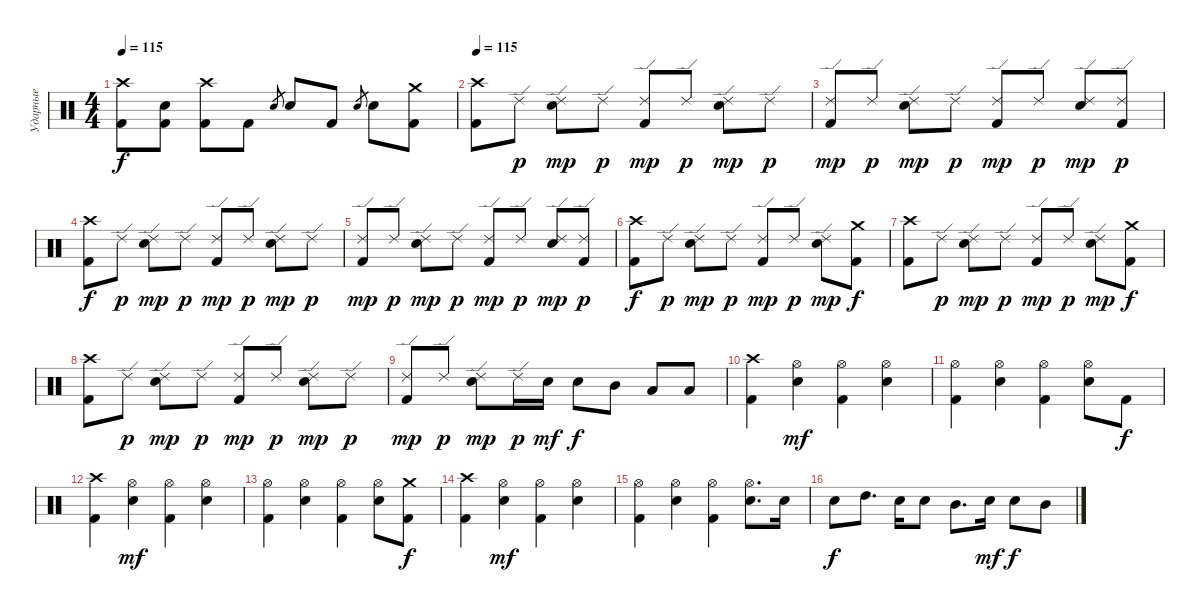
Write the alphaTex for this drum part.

\track ("Ударные" "Ударные") {instrument percussion}
\staff {score}
\articulation defaults
\ts (4 4)
\tempo 115
\clef neutral
\ks c
("Crash high (hit)" "Kick (hit) 2").8{dy f} ("Kick (hit) 2" "Electric Snare (hit)").8 ("Kick (hit) 2" "Crash high (hit)").8 "Kick (hit) 2".8 "Electric Snare (hit)".8{gr} "Electric Snare (hit)".8 "Kick (hit) 2".8 "Electric Snare (hit)".8{gr} "Electric Snare (hit)".8 ("Crash medium (hit)" "Kick (hit) 2").8 |
\tempo 115
("Crash high (hit)" "Kick (hit) 2").8 "Ride (edge) 2".8{dy p} ("Ride (edge) 2" "Electric Snare (hit)").8{dy mp} "Ride (edge) 2".8{dy p} ("Ride (edge) 2" "Kick (hit) 2").8{dy mp} "Ride (edge) 2".8{dy p} ("Ride (edge) 2" "Electric Snare (hit)").8{dy mp} "Ride (edge) 2".8{dy p} |
("Ride (edge) 2" "Kick (hit) 2").8{dy mp} "Ride (edge) 2".8{dy p} ("Ride (edge) 2" "Electric Snare (hit)").8{dy mp} "Ride (edge) 2".8{dy p} ("Ride (edge) 2" "Kick (hit) 2").8{dy mp} "Ride (edge) 2".8{dy p} ("Ride (edge) 2" "Electric Snare (hit)").8{dy mp} ("Ride (edge) 2" "Kick (hit) 2").8{dy p} |
("Crash high (hit)" "Kick (hit) 2").8{dy f} "Ride (edge) 2".8{dy p} ("Ride (edge) 2" "Electric Snare (hit)").8{dy mp} "Ride (edge) 2".8{dy p} ("Ride (edge) 2" "Kick (hit) 2").8{dy mp} "Ride (edge) 2".8{dy p} ("Ride (edge) 2" "Electric Snare (hit)").8{dy mp} "Ride (edge) 2".8{dy p} |
("Ride (edge) 2" "Kick (hit) 2").8{dy mp} "Ride (edge) 2".8{dy p} ("Ride (edge) 2" "Electric Snare (hit)").8{dy mp} "Ride (edge) 2".8{dy p} ("Ride (edge) 2" "Kick (hit) 2").8{dy mp} "Ride (edge) 2".8{dy p} ("Ride (edge) 2" "Electric Snare (hit)").8{dy mp} ("Ride (edge) 2" "Kick (hit) 2").8{dy p} |
("Crash high (hit)" "Kick (hit) 2").8{dy f} "Ride (edge) 2".8{dy p} ("Ride (edge) 2" "Electric Snare (hit)").8{dy mp} "Ride (edge) 2".8{dy p} ("Ride (edge) 2" "Kick (hit) 2").8{dy mp} "Ride (edge) 2".8{dy p} ("Ride (edge) 2" "Electric Snare (hit)").8{dy mp} ("Crash medium (hit)" "Kick (hit) 2").8{dy f} |
("Crash high (hit)" "Kick (hit) 2").8 "Ride (edge) 2".8{dy p} ("Ride (edge) 2" "Electric Snare (hit)").8{dy mp} "Ride (edge) 2".8{dy p} ("Ride (edge) 2" "Kick (hit) 2").8{dy mp} "Ride (edge) 2".8{dy p} ("Ride (edge) 2" "Electric Snare (hit)").8{dy mp} ("Crash medium (hit)" "Kick (hit) 2").8{dy f} |
("Crash high (hit)" "Kick (hit) 2").8 "Ride (edge) 2".8{dy p} ("Ride (edge) 2" "Electric Snare (hit)").8{dy mp} "Ride (edge) 2".8{dy p} ("Ride (edge) 2" "Kick (hit) 2").8{dy mp} "Ride (edge) 2".8{dy p} ("Ride (edge) 2" "Electric Snare (hit)").8{dy mp} "Ride (edge) 2".8{dy p} |
("Ride (edge) 2" "Kick (hit) 2").8{dy mp} "Ride (edge) 2".8{dy p} ("Ride (edge) 2" "Electric Snare (hit)").8{dy mp} "Ride (edge) 2".16{dy p} "Electric Snare (hit)".16{dy mf} "Electric Snare (hit)".8{dy f} "Mid Tom (hit)".8 "Low Tom (hit)".8 "Low Tom (hit)".8 |
("Crash high (hit)" "Kick (hit) 2").4 ("Hi-Hat (open)" "Electric Snare (hit)").4{dy mf} ("Hi-Hat (open)" "Kick (hit) 2").4 ("Hi-Hat (open)" "Electric Snare (hit)").4 |
("Hi-Hat (open)" "Kick (hit) 2").4 ("Hi-Hat (open)" "Electric Snare (hit)").4 ("Hi-Hat (open)" "Kick (hit) 2").4 ("Hi-Hat (open)" "Electric Snare (hit)").8 "Kick (hit) 2".8{dy f} |
("Crash high (hit)" "Kick (hit) 2").4 ("Hi-Hat (open)" "Electric Snare (hit)").4{dy mf} ("Hi-Hat (open)" "Kick (hit) 2").4 ("Hi-Hat (open)" "Electric Snare (hit)").4 |
("Hi-Hat (open)" "Kick (hit) 2").4 ("Hi-Hat (open)" "Electric Snare (hit)").4 ("Hi-Hat (open)" "Kick (hit) 2").4 ("Hi-Hat (open)" "Electric Snare (hit)").8 ("Crash medium (hit)" "Kick (hit) 2").8{dy f} |
("Crash high (hit)" "Kick (hit) 2").4 ("Hi-Hat (open)" "Electric Snare (hit)").4{dy mf} ("Hi-Hat (open)" "Kick (hit) 2").4 ("Hi-Hat (open)" "Electric Snare (hit)").4 |
("Hi-Hat (open)" "Kick (hit) 2").4 ("Hi-Hat (open)" "Electric Snare (hit)").4 ("Hi-Hat (open)" "Kick (hit) 2").4 ("Hi-Hat (open)" "Electric Snare (hit)").8{d} "Electric Snare (hit)".16 |
"Electric Snare (hit)".8{dy f} "High Tom (hit)".8{d} "Electric Snare (hit)".16 "Electric Snare (hit)".8 "Mid Tom (hit)".8{d} "Electric Snare (hit)".16{dy mf} "Electric Snare (hit)".8{dy f} "Mid Tom (hit)".8
